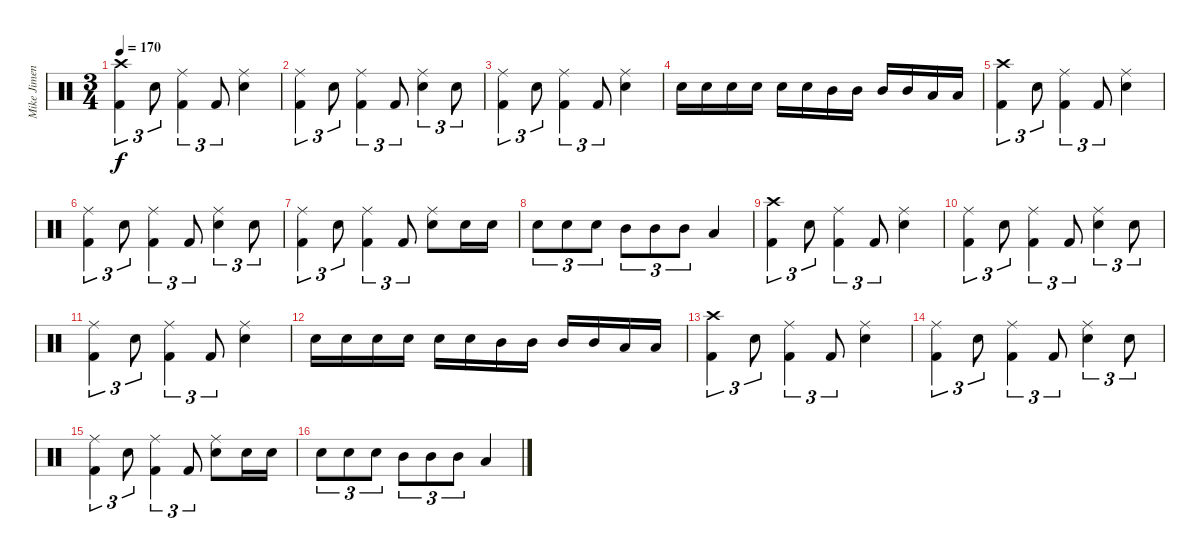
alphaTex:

\track ("Mike Jimenez" "Mike Jimen") {instrument percussion}
\staff {score}
\articulation defaults
\ts (3 4)
\tempo 170
\clef neutral
\ks c
("Crash high (hit)" "Kick (hit) 2").4{tu (3 2) dy f} "Electric Snare (hit)".8{tu (3 2)} ("Ride (middle)" "Kick (hit) 2").4{tu (3 2)} "Kick (hit) 2".8{tu (3 2)} ("Ride (middle)" "Electric Snare (hit)").4 |
("Ride (middle)" "Kick (hit) 2").4{tu (3 2)} "Electric Snare (hit)".8{tu (3 2)} ("Ride (middle)" "Kick (hit) 2").4{tu (3 2)} "Kick (hit) 2".8{tu (3 2)} ("Ride (middle)" "Electric Snare (hit)").4{tu (3 2)} "Electric Snare (hit)".8{tu (3 2)} |
("Ride (middle)" "Kick (hit) 2").4{tu (3 2)} "Electric Snare (hit)".8{tu (3 2)} ("Ride (middle)" "Kick (hit) 2").4{tu (3 2)} "Kick (hit) 2".8{tu (3 2)} ("Ride (middle)" "Electric Snare (hit)").4 |
"Electric Snare (hit)".16 "Electric Snare (hit)".16 "Electric Snare (hit)".16 "Electric Snare (hit)".16 "Electric Snare (hit)".16 "Electric Snare (hit)".16 "Mid Tom (hit)".16 "Mid Tom (hit)".16 "Mid Tom (hit)".16 "Mid Tom (hit)".16 "Low Tom (hit)".16 "Low Tom (hit)".16 |
("Crash high (hit)" "Kick (hit) 2").4{tu (3 2)} "Electric Snare (hit)".8{tu (3 2)} ("Ride (middle)" "Kick (hit) 2").4{tu (3 2)} "Kick (hit) 2".8{tu (3 2)} ("Ride (middle)" "Electric Snare (hit)").4 |
("Ride (middle)" "Kick (hit) 2").4{tu (3 2)} "Electric Snare (hit)".8{tu (3 2)} ("Ride (middle)" "Kick (hit) 2").4{tu (3 2)} "Kick (hit) 2".8{tu (3 2)} ("Ride (middle)" "Electric Snare (hit)").4{tu (3 2)} "Electric Snare (hit)".8{tu (3 2)} |
("Ride (middle)" "Kick (hit) 2").4{tu (3 2)} "Electric Snare (hit)".8{tu (3 2)} ("Ride (middle)" "Kick (hit) 2").4{tu (3 2)} "Kick (hit) 2".8{tu (3 2)} ("Ride (middle)" "Electric Snare (hit)").8 "Electric Snare (hit)".16 "Electric Snare (hit)".16 |
"Electric Snare (hit)".8{tu (3 2)} "Electric Snare (hit)".8{tu (3 2)} "Electric Snare (hit)".8{tu (3 2)} "Mid Tom (hit)".8{tu (3 2)} "Mid Tom (hit)".8{tu (3 2)} "Mid Tom (hit)".8{tu (3 2)} "Low Tom (hit)".4 |
("Crash high (hit)" "Kick (hit) 2").4{tu (3 2)} "Electric Snare (hit)".8{tu (3 2)} ("Ride (middle)" "Kick (hit) 2").4{tu (3 2)} "Kick (hit) 2".8{tu (3 2)} ("Ride (middle)" "Electric Snare (hit)").4 |
("Ride (middle)" "Kick (hit) 2").4{tu (3 2)} "Electric Snare (hit)".8{tu (3 2)} ("Ride (middle)" "Kick (hit) 2").4{tu (3 2)} "Kick (hit) 2".8{tu (3 2)} ("Ride (middle)" "Electric Snare (hit)").4{tu (3 2)} "Electric Snare (hit)".8{tu (3 2)} |
("Ride (middle)" "Kick (hit) 2").4{tu (3 2)} "Electric Snare (hit)".8{tu (3 2)} ("Ride (middle)" "Kick (hit) 2").4{tu (3 2)} "Kick (hit) 2".8{tu (3 2)} ("Ride (middle)" "Electric Snare (hit)").4 |
"Electric Snare (hit)".16 "Electric Snare (hit)".16 "Electric Snare (hit)".16 "Electric Snare (hit)".16 "Electric Snare (hit)".16 "Electric Snare (hit)".16 "Mid Tom (hit)".16 "Mid Tom (hit)".16 "Mid Tom (hit)".16 "Mid Tom (hit)".16 "Low Tom (hit)".16 "Low Tom (hit)".16 |
("Crash high (hit)" "Kick (hit) 2").4{tu (3 2)} "Electric Snare (hit)".8{tu (3 2)} ("Ride (middle)" "Kick (hit) 2").4{tu (3 2)} "Kick (hit) 2".8{tu (3 2)} ("Ride (middle)" "Electric Snare (hit)").4 |
("Ride (middle)" "Kick (hit) 2").4{tu (3 2)} "Electric Snare (hit)".8{tu (3 2)} ("Ride (middle)" "Kick (hit) 2").4{tu (3 2)} "Kick (hit) 2".8{tu (3 2)} ("Ride (middle)" "Electric Snare (hit)").4{tu (3 2)} "Electric Snare (hit)".8{tu (3 2)} |
("Ride (middle)" "Kick (hit) 2").4{tu (3 2)} "Electric Snare (hit)".8{tu (3 2)} ("Ride (middle)" "Kick (hit) 2").4{tu (3 2)} "Kick (hit) 2".8{tu (3 2)} ("Ride (middle)" "Electric Snare (hit)").8 "Electric Snare (hit)".16 "Electric Snare (hit)".16 |
"Electric Snare (hit)".8{tu (3 2)} "Electric Snare (hit)".8{tu (3 2)} "Electric Snare (hit)".8{tu (3 2)} "Mid Tom (hit)".8{tu (3 2)} "Mid Tom (hit)".8{tu (3 2)} "Mid Tom (hit)".8{tu (3 2)} "Low Tom (hit)".4
